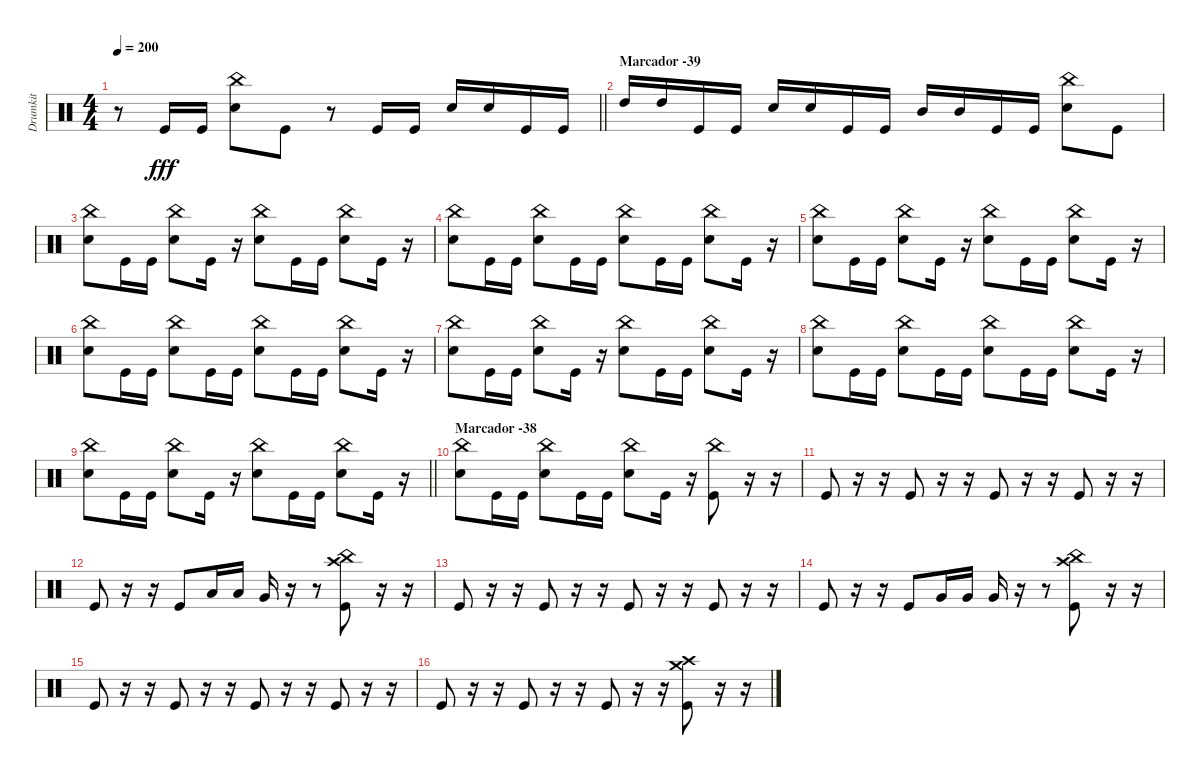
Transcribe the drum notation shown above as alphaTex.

\track ("Drumkit" "Drumkit") {instrument percussion}
\staff {score}
\articulation defaults
\ts (4 4)
\tempo 200
\clef neutral
\barLineRight lightlight
\ks c
r.8{dy fff} "Kick (hit)".16 "Kick (hit)".16 ("China (hit)" "Snare (hit) 2").8 "Kick (hit)".8 r.8 "Kick (hit)".16 "Kick (hit)".16 "Snare (hit) 2".16 "Snare (hit) 2".16 "Kick (hit)".16 "Kick (hit)".16 |
\section ("" "Marcador -39")
"High Tom (hit)".16 "High Tom (hit)".16 "Kick (hit)".16 "Kick (hit)".16 "Snare (hit) 2".16 "Snare (hit) 2".16 "Kick (hit)".16 "Kick (hit)".16 "Mid Tom (hit)".16 "Mid Tom (hit)".16 "Kick (hit)".16 "Kick (hit)".16 ("China (hit)" "Snare (hit) 2").8 "Kick (hit)".8 |
("China (hit)" "Snare (hit) 2").8 "Kick (hit)".16 "Kick (hit)".16 ("China (hit)" "Snare (hit) 2").8 "Kick (hit)".16 r.16 ("China (hit)" "Snare (hit) 2").8 "Kick (hit)".16 "Kick (hit)".16 ("China (hit)" "Snare (hit) 2").8 "Kick (hit)".16 r.16 |
("China (hit)" "Snare (hit) 2").8 "Kick (hit)".16 "Kick (hit)".16 ("China (hit)" "Snare (hit) 2").8 "Kick (hit)".16 "Kick (hit)".16 ("China (hit)" "Snare (hit) 2").8 "Kick (hit)".16 "Kick (hit)".16 ("China (hit)" "Snare (hit) 2").8 "Kick (hit)".16 r.16 |
("China (hit)" "Snare (hit) 2").8 "Kick (hit)".16 "Kick (hit)".16 ("China (hit)" "Snare (hit) 2").8 "Kick (hit)".16 r.16 ("China (hit)" "Snare (hit) 2").8 "Kick (hit)".16 "Kick (hit)".16 ("China (hit)" "Snare (hit) 2").8 "Kick (hit)".16 r.16 |
("China (hit)" "Snare (hit) 2").8 "Kick (hit)".16 "Kick (hit)".16 ("China (hit)" "Snare (hit) 2").8 "Kick (hit)".16 "Kick (hit)".16 ("China (hit)" "Snare (hit) 2").8 "Kick (hit)".16 "Kick (hit)".16 ("China (hit)" "Snare (hit) 2").8 "Kick (hit)".16 r.16 |
("China (hit)" "Snare (hit) 2").8 "Kick (hit)".16 "Kick (hit)".16 ("China (hit)" "Snare (hit) 2").8 "Kick (hit)".16 r.16 ("China (hit)" "Snare (hit) 2").8 "Kick (hit)".16 "Kick (hit)".16 ("China (hit)" "Snare (hit) 2").8 "Kick (hit)".16 r.16 |
("China (hit)" "Snare (hit) 2").8 "Kick (hit)".16 "Kick (hit)".16 ("China (hit)" "Snare (hit) 2").8 "Kick (hit)".16 "Kick (hit)".16 ("China (hit)" "Snare (hit) 2").8 "Kick (hit)".16 "Kick (hit)".16 ("China (hit)" "Snare (hit) 2").8 "Kick (hit)".16 r.16 |
\barLineRight lightlight
("China (hit)" "Snare (hit) 2").8 "Kick (hit)".16 "Kick (hit)".16 ("China (hit)" "Snare (hit) 2").8 "Kick (hit)".16 r.16 ("China (hit)" "Snare (hit) 2").8 "Kick (hit)".16 "Kick (hit)".16 ("China (hit)" "Snare (hit) 2").8 "Kick (hit)".16 r.16 |
\section ("" "Marcador -38")
("China (hit)" "Snare (hit) 2").8 "Kick (hit)".16 "Kick (hit)".16 ("China (hit)" "Snare (hit) 2").8 "Kick (hit)".16 "Kick (hit)".16 ("China (hit)" "Snare (hit) 2").8 "Kick (hit)".16 r.16 ("China (hit)" "Kick (hit)").8 r.16 r.16 |
"Kick (hit)".8 r.16 r.16 "Kick (hit)".8 r.16 r.16 "Kick (hit)".8 r.16 r.16 "Kick (hit)".8 r.16 r.16 |
"Kick (hit)".8 r.16 r.16 "Kick (hit)".8 "Low Tom (hit)".16 "Low Tom (hit)".16 "Very Low Tom (hit)".16 r.16 r.8 ("Crash high (hit)" "China (hit)" "Kick (hit)").8 r.16 r.16 |
"Kick (hit)".8 r.16 r.16 "Kick (hit)".8 r.16 r.16 "Kick (hit)".8 r.16 r.16 "Kick (hit)".8 r.16 r.16 |
"Kick (hit)".8 r.16 r.16 "Kick (hit)".8 "Very Low Tom (hit)".16 "Very Low Tom (hit)".16 "Very Low Tom (hit)".16 r.16 r.8 ("Crash high (hit)" "China (hit)" "Kick (hit)").8 r.16 r.16 |
"Kick (hit)".8 r.16 r.16 "Kick (hit)".8 r.16 r.16 "Kick (hit)".8 r.16 r.16 "Kick (hit)".8 r.16 r.16 |
"Kick (hit)".8 r.16 r.16 "Kick (hit)".8 r.16 r.16 "Kick (hit)".8 r.16 r.16 ("Crash high (hit)" "Crash medium (hit)" "Kick (hit)").8 r.16 r.16
